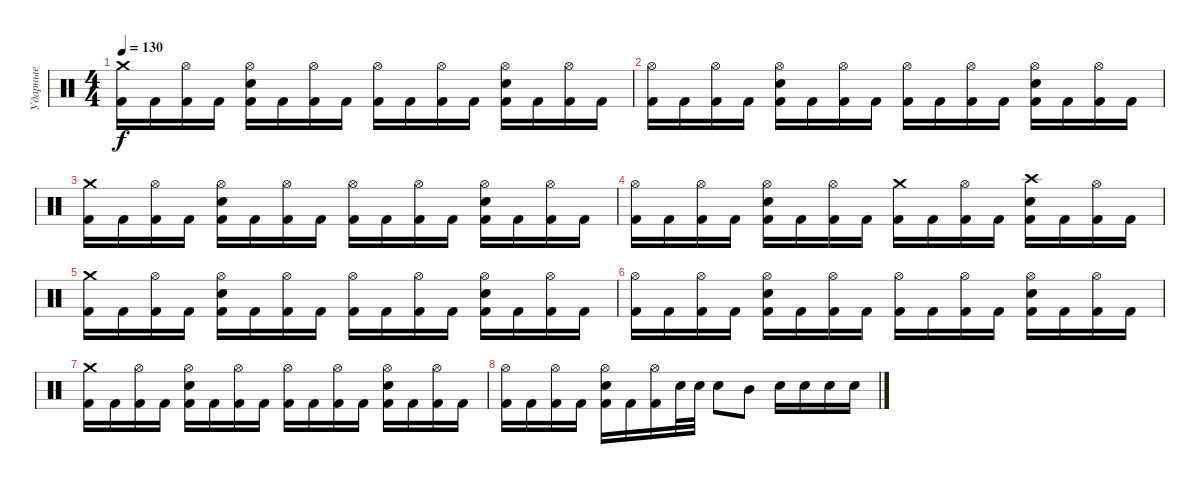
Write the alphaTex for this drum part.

\track ("Ударные" "Ударные") {instrument percussion}
\staff {score}
\articulation defaults
\ts (4 4)
\tempo 130
\clef neutral
\ks c
("Kick (hit) 2" "Crash medium (hit)").16{dy f} "Kick (hit) 2".16 ("Kick (hit) 2" "Hi-Hat (open)").16 "Kick (hit) 2".16 ("Kick (hit) 2" "Electric Snare (hit)" "Hi-Hat (open)").16 "Kick (hit) 2".16 ("Kick (hit) 2" "Hi-Hat (open)").16 "Kick (hit) 2".16 ("Kick (hit) 2" "Hi-Hat (open)").16 "Kick (hit) 2".16 ("Kick (hit) 2" "Hi-Hat (open)").16 "Kick (hit) 2".16 ("Kick (hit) 2" "Electric Snare (hit)" "Hi-Hat (open)").16 "Kick (hit) 2".16 ("Kick (hit) 2" "Hi-Hat (open)").16 "Kick (hit) 2".16 |
("Kick (hit) 2" "Hi-Hat (open)").16 "Kick (hit) 2".16 ("Kick (hit) 2" "Hi-Hat (open)").16 "Kick (hit) 2".16 ("Kick (hit) 2" "Electric Snare (hit)" "Hi-Hat (open)").16 "Kick (hit) 2".16 ("Kick (hit) 2" "Hi-Hat (open)").16 "Kick (hit) 2".16 ("Kick (hit) 2" "Hi-Hat (open)").16 "Kick (hit) 2".16 ("Kick (hit) 2" "Hi-Hat (open)").16 "Kick (hit) 2".16 ("Kick (hit) 2" "Electric Snare (hit)" "Hi-Hat (open)").16 "Kick (hit) 2".16 ("Kick (hit) 2" "Hi-Hat (open)").16 "Kick (hit) 2".16 |
("Kick (hit) 2" "Crash medium (hit)").16 "Kick (hit) 2".16 ("Kick (hit) 2" "Hi-Hat (open)").16 "Kick (hit) 2".16 ("Kick (hit) 2" "Electric Snare (hit)" "Hi-Hat (open)").16 "Kick (hit) 2".16 ("Kick (hit) 2" "Hi-Hat (open)").16 "Kick (hit) 2".16 ("Kick (hit) 2" "Hi-Hat (open)").16 "Kick (hit) 2".16 ("Kick (hit) 2" "Hi-Hat (open)").16 "Kick (hit) 2".16 ("Kick (hit) 2" "Electric Snare (hit)" "Hi-Hat (open)").16 "Kick (hit) 2".16 ("Kick (hit) 2" "Hi-Hat (open)").16 "Kick (hit) 2".16 |
("Kick (hit) 2" "Hi-Hat (open)").16 "Kick (hit) 2".16 ("Kick (hit) 2" "Hi-Hat (open)").16 "Kick (hit) 2".16 ("Kick (hit) 2" "Electric Snare (hit)" "Hi-Hat (open)").16 "Kick (hit) 2".16 ("Kick (hit) 2" "Hi-Hat (open)").16 "Kick (hit) 2".16 ("Kick (hit) 2" "Crash medium (hit)").16 "Kick (hit) 2".16 ("Kick (hit) 2" "Hi-Hat (open)").16 "Kick (hit) 2".16 ("Kick (hit) 2" "Electric Snare (hit)" "Crash high (hit)").16 "Kick (hit) 2".16 ("Kick (hit) 2" "Hi-Hat (open)").16 "Kick (hit) 2".16 |
("Kick (hit) 2" "Crash medium (hit)").16 "Kick (hit) 2".16 ("Kick (hit) 2" "Hi-Hat (open)").16 "Kick (hit) 2".16 ("Kick (hit) 2" "Electric Snare (hit)" "Hi-Hat (open)").16 "Kick (hit) 2".16 ("Kick (hit) 2" "Hi-Hat (open)").16 "Kick (hit) 2".16 ("Kick (hit) 2" "Hi-Hat (open)").16 "Kick (hit) 2".16 ("Kick (hit) 2" "Hi-Hat (open)").16 "Kick (hit) 2".16 ("Kick (hit) 2" "Electric Snare (hit)" "Hi-Hat (open)").16 "Kick (hit) 2".16 ("Kick (hit) 2" "Hi-Hat (open)").16 "Kick (hit) 2".16 |
("Kick (hit) 2" "Hi-Hat (open)").16 "Kick (hit) 2".16 ("Kick (hit) 2" "Hi-Hat (open)").16 "Kick (hit) 2".16 ("Kick (hit) 2" "Electric Snare (hit)" "Hi-Hat (open)").16 "Kick (hit) 2".16 ("Kick (hit) 2" "Hi-Hat (open)").16 "Kick (hit) 2".16 ("Kick (hit) 2" "Hi-Hat (open)").16 "Kick (hit) 2".16 ("Kick (hit) 2" "Hi-Hat (open)").16 "Kick (hit) 2".16 ("Kick (hit) 2" "Electric Snare (hit)" "Hi-Hat (open)").16 "Kick (hit) 2".16 ("Kick (hit) 2" "Hi-Hat (open)").16 "Kick (hit) 2".16 |
("Kick (hit) 2" "Crash medium (hit)").16 "Kick (hit) 2".16 ("Kick (hit) 2" "Hi-Hat (open)").16 "Kick (hit) 2".16 ("Kick (hit) 2" "Electric Snare (hit)" "Hi-Hat (open)").16 "Kick (hit) 2".16 ("Kick (hit) 2" "Hi-Hat (open)").16 "Kick (hit) 2".16 ("Kick (hit) 2" "Hi-Hat (open)").16 "Kick (hit) 2".16 ("Kick (hit) 2" "Hi-Hat (open)").16 "Kick (hit) 2".16 ("Kick (hit) 2" "Electric Snare (hit)" "Hi-Hat (open)").16 "Kick (hit) 2".16 ("Kick (hit) 2" "Hi-Hat (open)").16 "Kick (hit) 2".16 |
("Kick (hit) 2" "Hi-Hat (open)").16 "Kick (hit) 2".16 ("Kick (hit) 2" "Hi-Hat (open)").16 "Kick (hit) 2".16 ("Kick (hit) 2" "Electric Snare (hit)" "Hi-Hat (open)").16 "Kick (hit) 2".16 ("Kick (hit) 2" "Hi-Hat (open)").16 "Electric Snare (hit)".32 "Electric Snare (hit)".32 "Electric Snare (hit)".8 "Mid Tom (hit)".8 "Electric Snare (hit)".16 "Electric Snare (hit)".16 "Electric Snare (hit)".16 "Electric Snare (hit)".16
